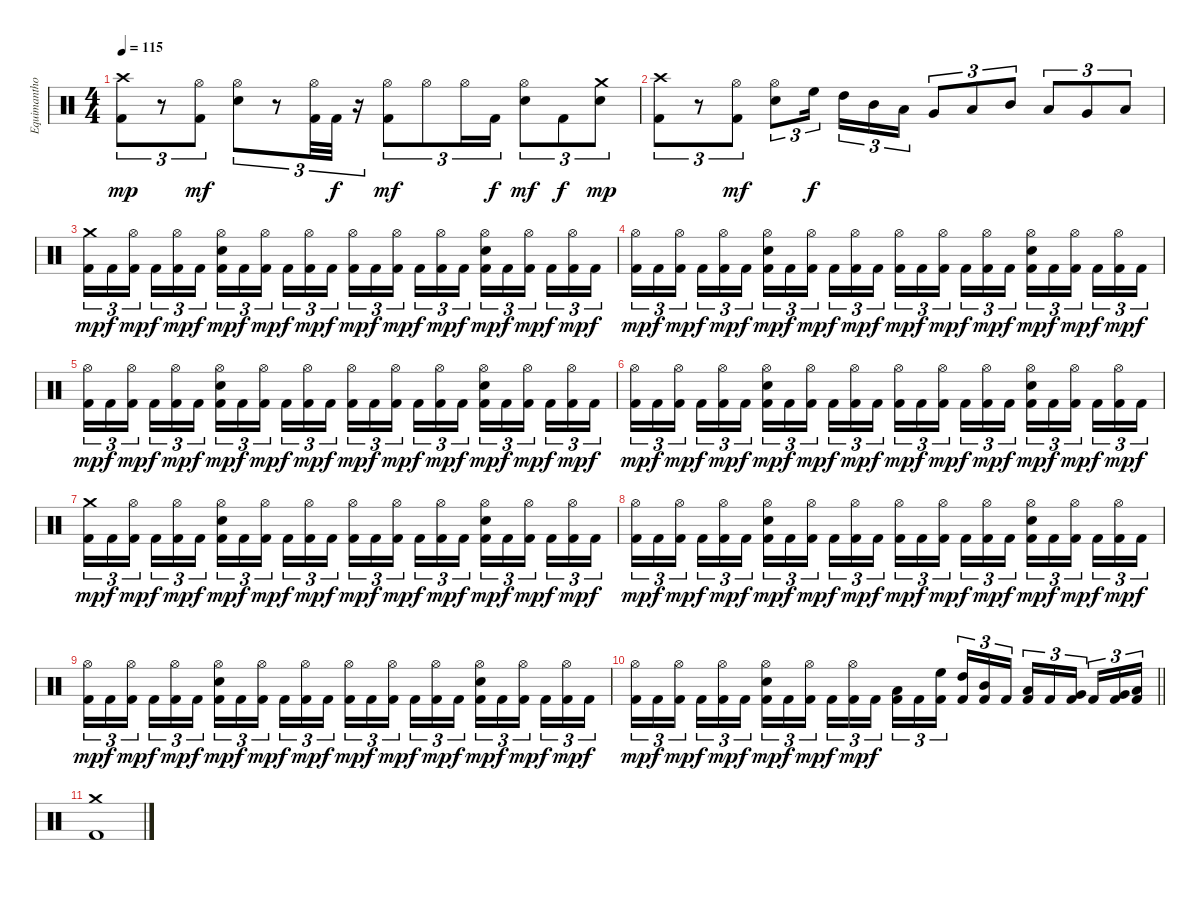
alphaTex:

\track ("Equimanthorn" "Equimantho") {instrument percussion}
\staff {score}
\articulation defaults
\ts (4 4)
\tempo 115
\clef neutral
\ks c
("Crash high (hit)" "Kick (hit) 2").8{tu (3 2) dy mp} r.8{tu (3 2)} ("Hi-Hat (open)" "Kick (hit) 2").8{tu (3 2) dy mf} ("Hi-Hat (open)" "Electric Snare (hit)").8{tu (3 2)} r.8{tu (3 2)} ("Hi-Hat (open)" "Kick (hit) 2").32{tu (3 2)} "Kick (hit) 2".32{tu (3 2) dy f} r.16{tu (3 2)} ("Hi-Hat (open)" "Kick (hit) 2").8{tu (3 2) dy mf} "Hi-Hat (open)".8{tu (3 2)} "Hi-Hat (open)".16{tu (3 2)} "Kick (hit) 2".16{tu (3 2) dy f} ("Hi-Hat (open)" "Electric Snare (hit)").8{tu (3 2) dy mf} "Kick (hit) 2".8{tu (3 2) dy f} ("Crash medium (hit)" "Electric Snare (hit)").8{tu (3 2) dy mp} |
("Crash high (hit)" "Kick (hit) 2").8{tu (3 2)} r.8{tu (3 2)} ("Hi-Hat (open)" "Kick (hit) 2").8{tu (3 2) dy mf} ("Hi-Hat (open)" "Electric Snare (hit)").8{tu (3 2)} "High Floor Tom (hit)".16{tu (3 2) dy f beam splitsecondary} "High Tom (hit)".16{tu (3 2)} "Mid Tom (hit)".16{tu (3 2)} "Low Tom (hit)".16{tu (3 2)} "Very Low Tom (hit)".8{tu (3 2)} "Low Floor Tom (hit)".8{tu (3 2)} "Mid Tom (hit)".8{tu (3 2)} "Low Tom (hit)".8{tu (3 2)} "Very Low Tom (hit)".8{tu (3 2)} "Low Floor Tom (hit)".8{tu (3 2)} |
("Crash medium (hit)" "Kick (hit) 2").16{tu (3 2) dy mp} "Kick (hit) 2".16{tu (3 2) dy f} ("Hi-Hat (open)" "Kick (hit) 2").16{tu (3 2) dy mp beam splitsecondary} "Kick (hit) 2".16{tu (3 2) dy f} ("Hi-Hat (open)" "Kick (hit) 2").16{tu (3 2) dy mp} "Kick (hit) 2".16{tu (3 2) dy f} ("Hi-Hat (open)" "Electric Snare (hit)" "Kick (hit) 2").16{tu (3 2) dy mp} "Kick (hit) 2".16{tu (3 2) dy f} ("Hi-Hat (open)" "Kick (hit) 2").16{tu (3 2) dy mp beam splitsecondary} "Kick (hit) 2".16{tu (3 2) dy f} ("Hi-Hat (open)" "Kick (hit) 2").16{tu (3 2) dy mp} "Kick (hit) 2".16{tu (3 2) dy f} ("Hi-Hat (open)" "Kick (hit) 2").16{tu (3 2) dy mp} "Kick (hit) 2".16{tu (3 2) dy f} ("Hi-Hat (open)" "Kick (hit) 2").16{tu (3 2) dy mp beam splitsecondary} "Kick (hit) 2".16{tu (3 2) dy f} ("Hi-Hat (open)" "Kick (hit) 2").16{tu (3 2) dy mp} "Kick (hit) 2".16{tu (3 2) dy f} ("Hi-Hat (open)" "Electric Snare (hit)" "Kick (hit) 2").16{tu (3 2) dy mp} "Kick (hit) 2".16{tu (3 2) dy f} ("Hi-Hat (open)" "Kick (hit) 2").16{tu (3 2) dy mp beam splitsecondary} "Kick (hit) 2".16{tu (3 2) dy f} ("Hi-Hat (open)" "Kick (hit) 2").16{tu (3 2) dy mp} "Kick (hit) 2".16{tu (3 2) dy f} |
("Hi-Hat (open)" "Kick (hit) 2").16{tu (3 2) dy mp} "Kick (hit) 2".16{tu (3 2) dy f} ("Hi-Hat (open)" "Kick (hit) 2").16{tu (3 2) dy mp beam splitsecondary} "Kick (hit) 2".16{tu (3 2) dy f} ("Hi-Hat (open)" "Kick (hit) 2").16{tu (3 2) dy mp} "Kick (hit) 2".16{tu (3 2) dy f} ("Hi-Hat (open)" "Electric Snare (hit)" "Kick (hit) 2").16{tu (3 2) dy mp} "Kick (hit) 2".16{tu (3 2) dy f} ("Hi-Hat (open)" "Kick (hit) 2").16{tu (3 2) dy mp beam splitsecondary} "Kick (hit) 2".16{tu (3 2) dy f} ("Hi-Hat (open)" "Kick (hit) 2").16{tu (3 2) dy mp} "Kick (hit) 2".16{tu (3 2) dy f} ("Hi-Hat (open)" "Kick (hit) 2").16{tu (3 2) dy mp} "Kick (hit) 2".16{tu (3 2) dy f} ("Hi-Hat (open)" "Kick (hit) 2").16{tu (3 2) dy mp beam splitsecondary} "Kick (hit) 2".16{tu (3 2) dy f} ("Hi-Hat (open)" "Kick (hit) 2").16{tu (3 2) dy mp} "Kick (hit) 2".16{tu (3 2) dy f} ("Hi-Hat (open)" "Electric Snare (hit)" "Kick (hit) 2").16{tu (3 2) dy mp} "Kick (hit) 2".16{tu (3 2) dy f} ("Hi-Hat (open)" "Kick (hit) 2").16{tu (3 2) dy mp beam splitsecondary} "Kick (hit) 2".16{tu (3 2) dy f} ("Hi-Hat (open)" "Kick (hit) 2").16{tu (3 2) dy mp} "Kick (hit) 2".16{tu (3 2) dy f} |
("Hi-Hat (open)" "Kick (hit) 2").16{tu (3 2) dy mp} "Kick (hit) 2".16{tu (3 2) dy f} ("Hi-Hat (open)" "Kick (hit) 2").16{tu (3 2) dy mp beam splitsecondary} "Kick (hit) 2".16{tu (3 2) dy f} ("Hi-Hat (open)" "Kick (hit) 2").16{tu (3 2) dy mp} "Kick (hit) 2".16{tu (3 2) dy f} ("Hi-Hat (open)" "Electric Snare (hit)" "Kick (hit) 2").16{tu (3 2) dy mp} "Kick (hit) 2".16{tu (3 2) dy f} ("Hi-Hat (open)" "Kick (hit) 2").16{tu (3 2) dy mp beam splitsecondary} "Kick (hit) 2".16{tu (3 2) dy f} ("Hi-Hat (open)" "Kick (hit) 2").16{tu (3 2) dy mp} "Kick (hit) 2".16{tu (3 2) dy f} ("Hi-Hat (open)" "Kick (hit) 2").16{tu (3 2) dy mp} "Kick (hit) 2".16{tu (3 2) dy f} ("Hi-Hat (open)" "Kick (hit) 2").16{tu (3 2) dy mp beam splitsecondary} "Kick (hit) 2".16{tu (3 2) dy f} ("Hi-Hat (open)" "Kick (hit) 2").16{tu (3 2) dy mp} "Kick (hit) 2".16{tu (3 2) dy f} ("Hi-Hat (open)" "Electric Snare (hit)" "Kick (hit) 2").16{tu (3 2) dy mp} "Kick (hit) 2".16{tu (3 2) dy f} ("Hi-Hat (open)" "Kick (hit) 2").16{tu (3 2) dy mp beam splitsecondary} "Kick (hit) 2".16{tu (3 2) dy f} ("Hi-Hat (open)" "Kick (hit) 2").16{tu (3 2) dy mp} "Kick (hit) 2".16{tu (3 2) dy f} |
("Hi-Hat (open)" "Kick (hit) 2").16{tu (3 2) dy mp} "Kick (hit) 2".16{tu (3 2) dy f} ("Hi-Hat (open)" "Kick (hit) 2").16{tu (3 2) dy mp beam splitsecondary} "Kick (hit) 2".16{tu (3 2) dy f} ("Hi-Hat (open)" "Kick (hit) 2").16{tu (3 2) dy mp} "Kick (hit) 2".16{tu (3 2) dy f} ("Hi-Hat (open)" "Electric Snare (hit)" "Kick (hit) 2").16{tu (3 2) dy mp} "Kick (hit) 2".16{tu (3 2) dy f} ("Hi-Hat (open)" "Kick (hit) 2").16{tu (3 2) dy mp beam splitsecondary} "Kick (hit) 2".16{tu (3 2) dy f} ("Hi-Hat (open)" "Kick (hit) 2").16{tu (3 2) dy mp} "Kick (hit) 2".16{tu (3 2) dy f} ("Hi-Hat (open)" "Kick (hit) 2").16{tu (3 2) dy mp} "Kick (hit) 2".16{tu (3 2) dy f} ("Hi-Hat (open)" "Kick (hit) 2").16{tu (3 2) dy mp beam splitsecondary} "Kick (hit) 2".16{tu (3 2) dy f} ("Hi-Hat (open)" "Kick (hit) 2").16{tu (3 2) dy mp} "Kick (hit) 2".16{tu (3 2) dy f} ("Hi-Hat (open)" "Electric Snare (hit)" "Kick (hit) 2").16{tu (3 2) dy mp} "Kick (hit) 2".16{tu (3 2) dy f} ("Hi-Hat (open)" "Kick (hit) 2").16{tu (3 2) dy mp beam splitsecondary} "Kick (hit) 2".16{tu (3 2) dy f} ("Hi-Hat (open)" "Kick (hit) 2").16{tu (3 2) dy mp} "Kick (hit) 2".16{tu (3 2) dy f} |
("Crash medium (hit)" "Kick (hit) 2").16{tu (3 2) dy mp} "Kick (hit) 2".16{tu (3 2) dy f} ("Hi-Hat (open)" "Kick (hit) 2").16{tu (3 2) dy mp beam splitsecondary} "Kick (hit) 2".16{tu (3 2) dy f} ("Hi-Hat (open)" "Kick (hit) 2").16{tu (3 2) dy mp} "Kick (hit) 2".16{tu (3 2) dy f} ("Hi-Hat (open)" "Electric Snare (hit)" "Kick (hit) 2").16{tu (3 2) dy mp} "Kick (hit) 2".16{tu (3 2) dy f} ("Hi-Hat (open)" "Kick (hit) 2").16{tu (3 2) dy mp beam splitsecondary} "Kick (hit) 2".16{tu (3 2) dy f} ("Hi-Hat (open)" "Kick (hit) 2").16{tu (3 2) dy mp} "Kick (hit) 2".16{tu (3 2) dy f} ("Hi-Hat (open)" "Kick (hit) 2").16{tu (3 2) dy mp} "Kick (hit) 2".16{tu (3 2) dy f} ("Hi-Hat (open)" "Kick (hit) 2").16{tu (3 2) dy mp beam splitsecondary} "Kick (hit) 2".16{tu (3 2) dy f} ("Hi-Hat (open)" "Kick (hit) 2").16{tu (3 2) dy mp} "Kick (hit) 2".16{tu (3 2) dy f} ("Hi-Hat (open)" "Electric Snare (hit)" "Kick (hit) 2").16{tu (3 2) dy mp} "Kick (hit) 2".16{tu (3 2) dy f} ("Hi-Hat (open)" "Kick (hit) 2").16{tu (3 2) dy mp beam splitsecondary} "Kick (hit) 2".16{tu (3 2) dy f} ("Hi-Hat (open)" "Kick (hit) 2").16{tu (3 2) dy mp} "Kick (hit) 2".16{tu (3 2) dy f} |
("Hi-Hat (open)" "Kick (hit) 2").16{tu (3 2) dy mp} "Kick (hit) 2".16{tu (3 2) dy f} ("Hi-Hat (open)" "Kick (hit) 2").16{tu (3 2) dy mp beam splitsecondary} "Kick (hit) 2".16{tu (3 2) dy f} ("Hi-Hat (open)" "Kick (hit) 2").16{tu (3 2) dy mp} "Kick (hit) 2".16{tu (3 2) dy f} ("Hi-Hat (open)" "Electric Snare (hit)" "Kick (hit) 2").16{tu (3 2) dy mp} "Kick (hit) 2".16{tu (3 2) dy f} ("Hi-Hat (open)" "Kick (hit) 2").16{tu (3 2) dy mp beam splitsecondary} "Kick (hit) 2".16{tu (3 2) dy f} ("Hi-Hat (open)" "Kick (hit) 2").16{tu (3 2) dy mp} "Kick (hit) 2".16{tu (3 2) dy f} ("Hi-Hat (open)" "Kick (hit) 2").16{tu (3 2) dy mp} "Kick (hit) 2".16{tu (3 2) dy f} ("Hi-Hat (open)" "Kick (hit) 2").16{tu (3 2) dy mp beam splitsecondary} "Kick (hit) 2".16{tu (3 2) dy f} ("Hi-Hat (open)" "Kick (hit) 2").16{tu (3 2) dy mp} "Kick (hit) 2".16{tu (3 2) dy f} ("Hi-Hat (open)" "Electric Snare (hit)" "Kick (hit) 2").16{tu (3 2) dy mp} "Kick (hit) 2".16{tu (3 2) dy f} ("Hi-Hat (open)" "Kick (hit) 2").16{tu (3 2) dy mp beam splitsecondary} "Kick (hit) 2".16{tu (3 2) dy f} ("Hi-Hat (open)" "Kick (hit) 2").16{tu (3 2) dy mp} "Kick (hit) 2".16{tu (3 2) dy f} |
("Hi-Hat (open)" "Kick (hit) 2").16{tu (3 2) dy mp} "Kick (hit) 2".16{tu (3 2) dy f} ("Hi-Hat (open)" "Kick (hit) 2").16{tu (3 2) dy mp beam splitsecondary} "Kick (hit) 2".16{tu (3 2) dy f} ("Hi-Hat (open)" "Kick (hit) 2").16{tu (3 2) dy mp} "Kick (hit) 2".16{tu (3 2) dy f} ("Hi-Hat (open)" "Electric Snare (hit)" "Kick (hit) 2").16{tu (3 2) dy mp} "Kick (hit) 2".16{tu (3 2) dy f} ("Hi-Hat (open)" "Kick (hit) 2").16{tu (3 2) dy mp beam splitsecondary} "Kick (hit) 2".16{tu (3 2) dy f} ("Hi-Hat (open)" "Kick (hit) 2").16{tu (3 2) dy mp} "Kick (hit) 2".16{tu (3 2) dy f} ("Hi-Hat (open)" "Kick (hit) 2").16{tu (3 2) dy mp} "Kick (hit) 2".16{tu (3 2) dy f} ("Hi-Hat (open)" "Kick (hit) 2").16{tu (3 2) dy mp beam splitsecondary} "Kick (hit) 2".16{tu (3 2) dy f} ("Hi-Hat (open)" "Kick (hit) 2").16{tu (3 2) dy mp} "Kick (hit) 2".16{tu (3 2) dy f} ("Hi-Hat (open)" "Electric Snare (hit)" "Kick (hit) 2").16{tu (3 2) dy mp} "Kick (hit) 2".16{tu (3 2) dy f} ("Hi-Hat (open)" "Kick (hit) 2").16{tu (3 2) dy mp beam splitsecondary} "Kick (hit) 2".16{tu (3 2) dy f} ("Hi-Hat (open)" "Kick (hit) 2").16{tu (3 2) dy mp} "Kick (hit) 2".16{tu (3 2) dy f} |
\barLineRight lightlight
("Hi-Hat (open)" "Kick (hit) 2").16{tu (3 2) dy mp} "Kick (hit) 2".16{tu (3 2) dy f} ("Hi-Hat (open)" "Kick (hit) 2").16{tu (3 2) dy mp beam splitsecondary} "Kick (hit) 2".16{tu (3 2) dy f} ("Hi-Hat (open)" "Kick (hit) 2").16{tu (3 2) dy mp} "Kick (hit) 2".16{tu (3 2) dy f} ("Hi-Hat (open)" "Electric Snare (hit)" "Kick (hit) 2").16{tu (3 2) dy mp} "Kick (hit) 2".16{tu (3 2) dy f} ("Hi-Hat (open)" "Kick (hit) 2").16{tu (3 2) dy mp beam splitsecondary} "Kick (hit) 2".16{tu (3 2) dy f} ("Hi-Hat (open)" "Kick (hit) 2").16{tu (3 2) dy mp} "Kick (hit) 2".16{tu (3 2) dy f} ("Low Tom (hit)" "Kick (hit) 2").16{tu (3 2)} "Kick (hit) 2".16{tu (3 2)} ("High Floor Tom (hit)" "Kick (hit) 2").16{tu (3 2) beam splitsecondary} ("High Tom (hit)" "Kick (hit) 2").16{tu (3 2)} ("Mid Tom (hit)" "Kick (hit) 2").16{tu (3 2)} "Kick (hit) 2".16{tu (3 2)} ("Low Tom (hit)" "Kick (hit) 2").16{tu (3 2)} "Kick (hit) 2".16{tu (3 2)} ("Very Low Tom (hit)" "Kick (hit) 2").16{tu (3 2) beam splitsecondary} "Kick (hit) 2".16{tu (3 2)} ("Very Low Tom (hit)" "Kick (hit) 2").16{tu (3 2)} ("Low Floor Tom (hit)" "Kick (hit) 2").16{tu (3 2)} |
("Crash medium (hit)" "Kick (hit) 2").1
